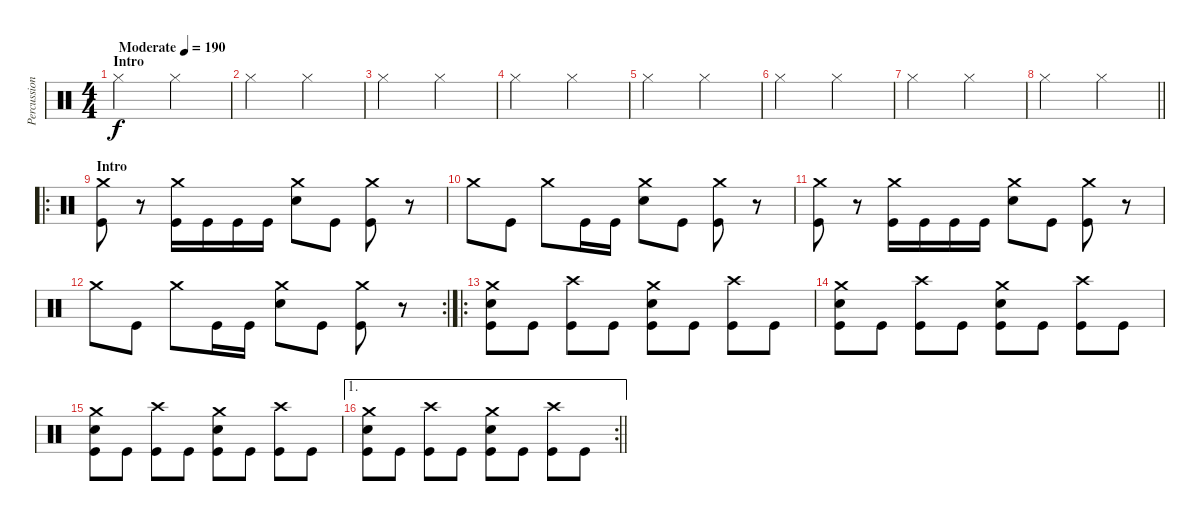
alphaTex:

\track ("Percussion" "Percussion") {instrument percussion}
\staff {score}
\articulation defaults
\ts (4 4)
\section ("" "Intro")
\tempo (190 "Moderate")
\clef neutral
\ks c "Hi-Hat (closed)".2{dy f} "Hi-Hat (closed)".2
|
"Hi-Hat (closed)".2 "Hi-Hat (closed)".2 |
"Hi-Hat (closed)".2 "Hi-Hat (closed)".2 |
"Hi-Hat (closed)".2 "Hi-Hat (closed)".2 |
"Hi-Hat (closed)".2 "Hi-Hat (closed)".2 |
"Hi-Hat (closed)".2 "Hi-Hat (closed)".2 |
"Hi-Hat (closed)".2 "Hi-Hat (closed)".2 |
\barLineRight lightlight "Hi-Hat (closed)".2 "Hi-Hat (closed)".2
|
\ro
\section ("" "Intro")
("Crash medium (hit)" "Kick (hit)").8 r.8 ("Crash medium (hit)" "Kick (hit)").16 "Kick (hit)".16 "Kick (hit)".16 "Kick (hit)".16 ("Crash medium (hit)" "Snare (hit) 2").8 "Kick (hit)".8 ("Crash medium (hit)" "Kick (hit)").8 r.8 |
"Crash medium (hit)".8 "Kick (hit)".8 "Crash medium (hit)".8 "Kick (hit)".16 "Kick (hit)".16 ("Crash medium (hit)" "Snare (hit) 2").8 "Kick (hit)".8 ("Crash medium (hit)" "Kick (hit)").8 r.8 |
("Crash medium (hit)" "Kick (hit)").8 r.8 ("Crash medium (hit)" "Kick (hit)").16 "Kick (hit)".16 "Kick (hit)".16 "Kick (hit)".16 ("Crash medium (hit)" "Snare (hit) 2").8 "Kick (hit)".8 ("Crash medium (hit)" "Kick (hit)").8 r.8 |
\rc 2 "Crash medium (hit)".8 "Kick (hit)".8 "Crash medium (hit)".8 "Kick (hit)".16 "Kick (hit)".16
("Crash medium (hit)" "Snare (hit) 2").8 "Kick (hit)".8 ("Crash medium (hit)" "Kick (hit)").8 r.8 |
\ro
("Crash medium (hit)" "Snare (hit) 2" "Kick (hit)").8 "Kick (hit)".8 ("Crash high (hit)" "Kick (hit)").8 "Kick (hit)".8 ("Crash medium (hit)" "Snare (hit) 2" "Kick (hit)").8 "Kick (hit)".8 ("Crash high (hit)" "Kick (hit)").8 "Kick (hit)".8 |
("Crash medium (hit)" "Snare (hit) 2" "Kick (hit)").8 "Kick (hit)".8 ("Crash high (hit)" "Kick (hit)").8 "Kick (hit)".8 ("Crash medium (hit)" "Snare (hit) 2" "Kick (hit)").8 "Kick (hit)".8 ("Crash high (hit)" "Kick (hit)").8 "Kick (hit)".8 |
("Crash medium (hit)" "Snare (hit) 2" "Kick (hit)").8 "Kick (hit)".8 ("Crash high (hit)" "Kick (hit)").8 "Kick (hit)".8 ("Crash medium (hit)" "Snare (hit) 2" "Kick (hit)").8 "Kick (hit)".8 ("Crash high (hit)" "Kick (hit)").8 "Kick (hit)".8 |
\ae 1
\rc 2
\barLineRight lightlight
("Crash medium (hit)" "Snare (hit) 2" "Kick (hit)").8 "Kick (hit)".8 ("Crash high (hit)" "Kick (hit)").8 "Kick (hit)".8 ("Crash medium (hit)" "Snare (hit) 2" "Kick (hit)").8 "Kick (hit)".8 ("Crash high (hit)" "Kick (hit)").8 "Kick (hit)".8
